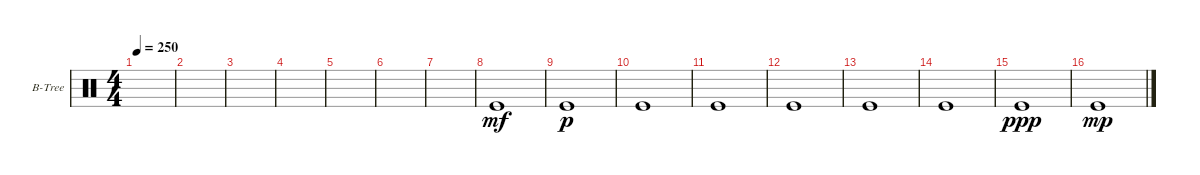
\defaultSystemsLayout 4
\bracketExtendMode groupsimilarinstruments
\firstSystemTrackNameOrientation horizontal
\otherSystemsTrackNameOrientation horizontal
\track ("Bell Tree" "B-Tree") {mute instrument percussion}
\staff {score}
\articulation defaults
\ts (4 4)
\tempo 250
\clef neutral
\scale
0.333333
\ks c
|
\scale
0.333333 |
\scale
0.333333 |
\scale
0.333333 |
\scale
0.333333 |
\scale
0.333333 |
\scale
0.333333 |
\scale
0.333333 "Kick (hit)".1{dy mf} |
\scale
0.333333 "Kick (hit)".1{dy p} |
\scale
0.333333 "Kick (hit)".1 |
\scale
0.333333 "Kick (hit)".1 |
\scale
0.333333 "Kick (hit)".1 |
\scale
0.333333 "Kick (hit)".1 |
\scale
0.333333 "Kick (hit)".1 |
\scale
0.333333 "Kick (hit)".1{dy ppp} |
\scale
0.333333 "Kick (hit)".1{dy mp}
